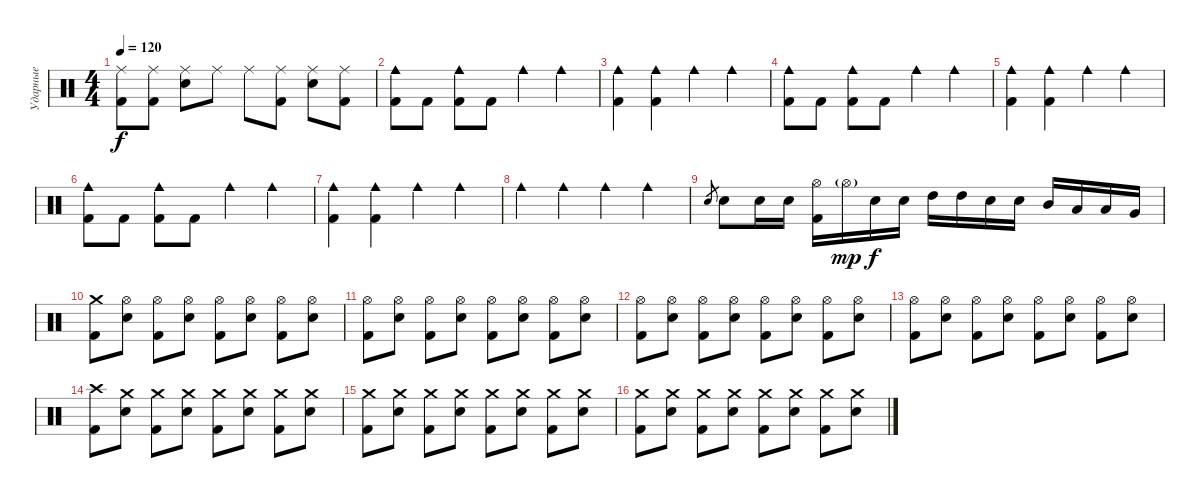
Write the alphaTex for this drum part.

\track ("Ударные" "Ударные") {instrument percussion}
\staff {score}
\articulation defaults
\ts (4 4)
\tempo 120
\clef neutral
\ks c
("Ride (middle)" "Kick (hit) 2").8{dy f} ("Ride (middle)" "Kick (hit) 2").8 ("Ride (middle)" "Electric Snare (hit)").8 "Ride (middle)".8 "Ride (middle)".8 ("Ride (middle)" "Kick (hit) 2").8 ("Ride (middle)" "Electric Snare (hit)").8 ("Ride (middle)" "Kick (hit) 2").8 |
("Cowbell medium (hit)" "Kick (hit) 2").8 "Kick (hit) 2".8 ("Cowbell medium (hit)" "Kick (hit) 2").8 "Kick (hit) 2".8 "Cowbell medium (hit)".4 "Cowbell medium (hit)".4 |
("Cowbell medium (hit)" "Kick (hit) 2").4 ("Cowbell medium (hit)" "Kick (hit) 2").4 "Cowbell medium (hit)".4 "Cowbell medium (hit)".4 |
("Cowbell medium (hit)" "Kick (hit) 2").8 "Kick (hit) 2".8 ("Cowbell medium (hit)" "Kick (hit) 2").8 "Kick (hit) 2".8 "Cowbell medium (hit)".4 "Cowbell medium (hit)".4 |
("Cowbell medium (hit)" "Kick (hit) 2").4 ("Cowbell medium (hit)" "Kick (hit) 2").4 "Cowbell medium (hit)".4 "Cowbell medium (hit)".4 |
("Cowbell medium (hit)" "Kick (hit) 2").8 "Kick (hit) 2".8 ("Cowbell medium (hit)" "Kick (hit) 2").8 "Kick (hit) 2".8 "Cowbell medium (hit)".4 "Cowbell medium (hit)".4 |
("Cowbell medium (hit)" "Kick (hit) 2").4 ("Cowbell medium (hit)" "Kick (hit) 2").4 "Cowbell medium (hit)".4 "Cowbell medium (hit)".4 |
"Cowbell medium (hit)".4 "Cowbell medium (hit)".4 "Cowbell medium (hit)".4 "Cowbell medium (hit)".4 |
"Electric Snare (hit)".8{gr} "Electric Snare (hit)".8 "Electric Snare (hit)".16 "Electric Snare (hit)".16 ("Hi-Hat (open)" "Kick (hit) 2").16 "Hi-Hat (open)"{g}.16{dy mp} "Electric Snare (hit)".16{dy f} "Electric Snare (hit)".16 "High Tom (hit)".16 "High Tom (hit)".16 "Electric Snare (hit)".16 "Electric Snare (hit)".16 "Mid Tom (hit)".16 "Low Tom (hit)".16 "Low Tom (hit)".16 "Very Low Tom (hit)".16 |
("Crash medium (hit)" "Kick (hit) 2").8 ("Hi-Hat (open)" "Electric Snare (hit)").8 ("Hi-Hat (open)" "Kick (hit) 2").8 ("Hi-Hat (open)" "Electric Snare (hit)").8 ("Hi-Hat (open)" "Kick (hit) 2").8 ("Hi-Hat (open)" "Electric Snare (hit)").8 ("Hi-Hat (open)" "Kick (hit) 2").8 ("Hi-Hat (open)" "Electric Snare (hit)").8 |
("Hi-Hat (open)" "Kick (hit) 2").8 ("Hi-Hat (open)" "Electric Snare (hit)").8 ("Hi-Hat (open)" "Kick (hit) 2").8 ("Hi-Hat (open)" "Electric Snare (hit)").8 ("Hi-Hat (open)" "Kick (hit) 2").8 ("Hi-Hat (open)" "Electric Snare (hit)").8 ("Hi-Hat (open)" "Kick (hit) 2").8 ("Hi-Hat (open)" "Electric Snare (hit)").8 |
("Hi-Hat (open)" "Kick (hit) 2").8 ("Hi-Hat (open)" "Electric Snare (hit)").8 ("Hi-Hat (open)" "Kick (hit) 2").8 ("Hi-Hat (open)" "Electric Snare (hit)").8 ("Hi-Hat (open)" "Kick (hit) 2").8 ("Hi-Hat (open)" "Electric Snare (hit)").8 ("Hi-Hat (open)" "Kick (hit) 2").8 ("Hi-Hat (open)" "Electric Snare (hit)").8 |
("Hi-Hat (open)" "Kick (hit) 2").8 ("Hi-Hat (open)" "Electric Snare (hit)").8 ("Hi-Hat (open)" "Kick (hit) 2").8 ("Hi-Hat (open)" "Electric Snare (hit)").8 ("Hi-Hat (open)" "Kick (hit) 2").8 ("Hi-Hat (open)" "Electric Snare (hit)").8 ("Hi-Hat (open)" "Kick (hit) 2").8 ("Hi-Hat (open)" "Electric Snare (hit)").8 |
("Crash high (hit)" "Kick (hit) 2").8 ("Crash medium (hit)" "Electric Snare (hit)").8 ("Crash medium (hit)" "Kick (hit) 2").8 ("Crash medium (hit)" "Electric Snare (hit)").8 ("Crash medium (hit)" "Kick (hit) 2").8 ("Crash medium (hit)" "Electric Snare (hit)").8 ("Crash medium (hit)" "Kick (hit) 2").8 ("Crash medium (hit)" "Electric Snare (hit)").8 |
("Crash medium (hit)" "Kick (hit) 2").8 ("Crash medium (hit)" "Electric Snare (hit)").8 ("Crash medium (hit)" "Kick (hit) 2").8 ("Crash medium (hit)" "Electric Snare (hit)").8 ("Crash medium (hit)" "Kick (hit) 2").8 ("Crash medium (hit)" "Electric Snare (hit)").8 ("Crash medium (hit)" "Kick (hit) 2").8 ("Crash medium (hit)" "Electric Snare (hit)").8 |
("Crash medium (hit)" "Kick (hit) 2").8 ("Crash medium (hit)" "Electric Snare (hit)").8 ("Crash medium (hit)" "Kick (hit) 2").8 ("Crash medium (hit)" "Electric Snare (hit)").8 ("Crash medium (hit)" "Kick (hit) 2").8 ("Crash medium (hit)" "Electric Snare (hit)").8 ("Crash medium (hit)" "Kick (hit) 2").8 ("Crash medium (hit)" "Electric Snare (hit)").8
